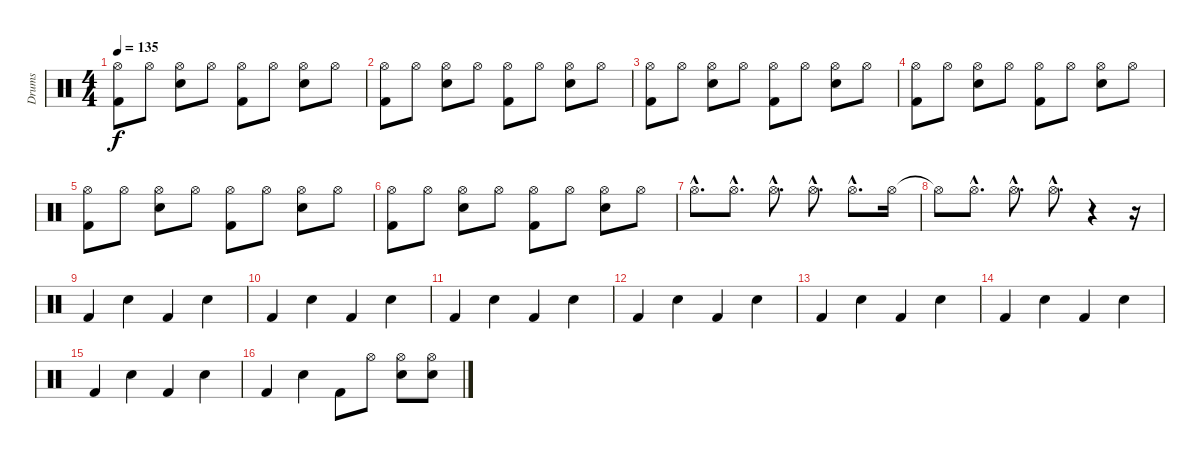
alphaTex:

\track ("Drums" "Drums") {instrument percussion}
\staff {score}
\articulation defaults
\ts (4 4)
\tempo 135
\clef neutral
\ks c
("Hi-Hat (open)" "Kick (hit) 2").8{dy f} "Hi-Hat (open)".8 ("Hi-Hat (open)" "Snare (hit) 2").8 "Hi-Hat (open)".8 ("Hi-Hat (open)" "Kick (hit) 2").8 "Hi-Hat (open)".8 ("Hi-Hat (open)" "Snare (hit) 2").8 "Hi-Hat (open)".8 |
("Hi-Hat (open)" "Kick (hit) 2").8 "Hi-Hat (open)".8 ("Hi-Hat (open)" "Snare (hit) 2").8 "Hi-Hat (open)".8 ("Hi-Hat (open)" "Kick (hit) 2").8 "Hi-Hat (open)".8 ("Hi-Hat (open)" "Snare (hit) 2").8 "Hi-Hat (open)".8 |
("Hi-Hat (open)" "Kick (hit) 2").8 "Hi-Hat (open)".8 ("Hi-Hat (open)" "Snare (hit) 2").8 "Hi-Hat (open)".8 ("Hi-Hat (open)" "Kick (hit) 2").8 "Hi-Hat (open)".8 ("Hi-Hat (open)" "Snare (hit) 2").8 "Hi-Hat (open)".8 |
("Hi-Hat (open)" "Kick (hit) 2").8 "Hi-Hat (open)".8 ("Hi-Hat (open)" "Snare (hit) 2").8 "Hi-Hat (open)".8 ("Hi-Hat (open)" "Kick (hit) 2").8 "Hi-Hat (open)".8 ("Hi-Hat (open)" "Snare (hit) 2").8 "Hi-Hat (open)".8 |
("Hi-Hat (open)" "Kick (hit) 2").8 "Hi-Hat (open)".8 ("Hi-Hat (open)" "Snare (hit) 2").8 "Hi-Hat (open)".8 ("Hi-Hat (open)" "Kick (hit) 2").8 "Hi-Hat (open)".8 ("Hi-Hat (open)" "Snare (hit) 2").8 "Hi-Hat (open)".8 |
("Hi-Hat (open)" "Kick (hit) 2").8 "Hi-Hat (open)".8 ("Hi-Hat (open)" "Snare (hit) 2").8 "Hi-Hat (open)".8 ("Hi-Hat (open)" "Kick (hit) 2").8 "Hi-Hat (open)".8 ("Hi-Hat (open)" "Snare (hit) 2").8 "Hi-Hat (open)".8 |
"Hi-Hat (open)"{hac}.8{d} "Hi-Hat (open)"{hac}.8{d} "Hi-Hat (open)"{hac}.8{d} "Hi-Hat (open)"{hac}.8{d} "Hi-Hat (open)"{hac}.8{d} "Hi-Hat (open)".16 |
"Hi-Hat (open)"{t}.8 "Hi-Hat (open)"{hac}.8{d} "Hi-Hat (open)"{hac}.8{d} "Hi-Hat (open)"{hac}.8{d} r.4 r.16 |
"Kick (hit) 2".4 "Snare (hit) 2".4 "Kick (hit) 2".4 "Snare (hit) 2".4 |
"Kick (hit) 2".4 "Snare (hit) 2".4 "Kick (hit) 2".4 "Snare (hit) 2".4 |
"Kick (hit) 2".4 "Snare (hit) 2".4 "Kick (hit) 2".4 "Snare (hit) 2".4 |
"Kick (hit) 2".4 "Snare (hit) 2".4 "Kick (hit) 2".4 "Snare (hit) 2".4 |
"Kick (hit) 2".4 "Snare (hit) 2".4 "Kick (hit) 2".4 "Snare (hit) 2".4 |
"Kick (hit) 2".4 "Snare (hit) 2".4 "Kick (hit) 2".4 "Snare (hit) 2".4 |
"Kick (hit) 2".4 "Snare (hit) 2".4 "Kick (hit) 2".4 "Snare (hit) 2".4 |
"Kick (hit) 2".4 "Snare (hit) 2".4 "Kick (hit) 2".8 "Hi-Hat (open)".8 ("Hi-Hat (open)" "Snare (hit) 2").8 ("Hi-Hat (open)" "Snare (hit) 2").8
